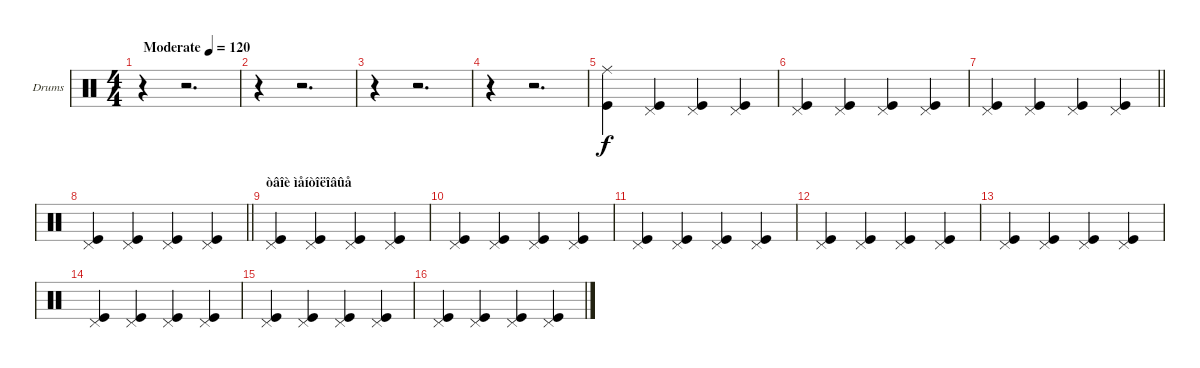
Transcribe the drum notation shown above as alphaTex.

\bracketExtendMode groupsimilarinstruments
\firstSystemTrackNameOrientation horizontal
\otherSystemsTrackNameOrientation horizontal
\track ("Drumkit" "Drums") {instrument percussion}
\staff {score}
\articulation defaults
\ts (4 4)
\beaming (8 2 2 2 2)
\tempo (120 "Moderate")
\clef neutral
\ks c
r.4{dy f} r.2{d} |
r.4 r.2{d} |
r.4 r.2{d} |
r.4 r.2{d} |
("Ride (middle)" "Kick (hit)").4 ("Pedal Hi-Hat (hit)" "Kick (hit)").4 ("Pedal Hi-Hat (hit)" "Kick (hit)").4 ("Pedal Hi-Hat (hit)" "Kick (hit)").4 |
("Pedal Hi-Hat (hit)" "Kick (hit)").4 ("Pedal Hi-Hat (hit)" "Kick (hit)").4 ("Pedal Hi-Hat (hit)" "Kick (hit)").4 ("Pedal Hi-Hat (hit)" "Kick (hit)").4 |
\barLineRight lightlight
("Pedal Hi-Hat (hit)" "Kick (hit)").4 ("Pedal Hi-Hat (hit)" "Kick (hit)").4 ("Pedal Hi-Hat (hit)" "Kick (hit)").4 ("Pedal Hi-Hat (hit)" "Kick (hit)").4 |
\section ("" "")
\barLineRight lightlight
("Pedal Hi-Hat (hit)" "Kick (hit)").4 ("Pedal Hi-Hat (hit)" "Kick (hit)").4 ("Pedal Hi-Hat (hit)" "Kick (hit)").4 ("Pedal Hi-Hat (hit)" "Kick (hit)").4 |
\section ("" "òâîè ìåíòîëîâûå")
("Pedal Hi-Hat (hit)" "Kick (hit)").4 ("Pedal Hi-Hat (hit)" "Kick (hit)").4 ("Pedal Hi-Hat (hit)" "Kick (hit)").4 ("Pedal Hi-Hat (hit)" "Kick (hit)").4 |
("Pedal Hi-Hat (hit)" "Kick (hit)").4 ("Pedal Hi-Hat (hit)" "Kick (hit)").4 ("Pedal Hi-Hat (hit)" "Kick (hit)").4 ("Pedal Hi-Hat (hit)" "Kick (hit)").4 |
("Pedal Hi-Hat (hit)" "Kick (hit)").4 ("Pedal Hi-Hat (hit)" "Kick (hit)").4 ("Pedal Hi-Hat (hit)" "Kick (hit)").4 ("Pedal Hi-Hat (hit)" "Kick (hit)").4 |
("Pedal Hi-Hat (hit)" "Kick (hit)").4 ("Pedal Hi-Hat (hit)" "Kick (hit)").4 ("Pedal Hi-Hat (hit)" "Kick (hit)").4 ("Pedal Hi-Hat (hit)" "Kick (hit)").4 |
("Pedal Hi-Hat (hit)" "Kick (hit)").4 ("Pedal Hi-Hat (hit)" "Kick (hit)").4 ("Pedal Hi-Hat (hit)" "Kick (hit)").4 ("Pedal Hi-Hat (hit)" "Kick (hit)").4 |
("Pedal Hi-Hat (hit)" "Kick (hit)").4 ("Pedal Hi-Hat (hit)" "Kick (hit)").4 ("Pedal Hi-Hat (hit)" "Kick (hit)").4 ("Pedal Hi-Hat (hit)" "Kick (hit)").4 |
("Pedal Hi-Hat (hit)" "Kick (hit)").4 ("Pedal Hi-Hat (hit)" "Kick (hit)").4 ("Pedal Hi-Hat (hit)" "Kick (hit)").4 ("Pedal Hi-Hat (hit)" "Kick (hit)").4 |
("Pedal Hi-Hat (hit)" "Kick (hit)").4 ("Pedal Hi-Hat (hit)" "Kick (hit)").4 ("Pedal Hi-Hat (hit)" "Kick (hit)").4 ("Pedal Hi-Hat (hit)" "Kick (hit)").4
